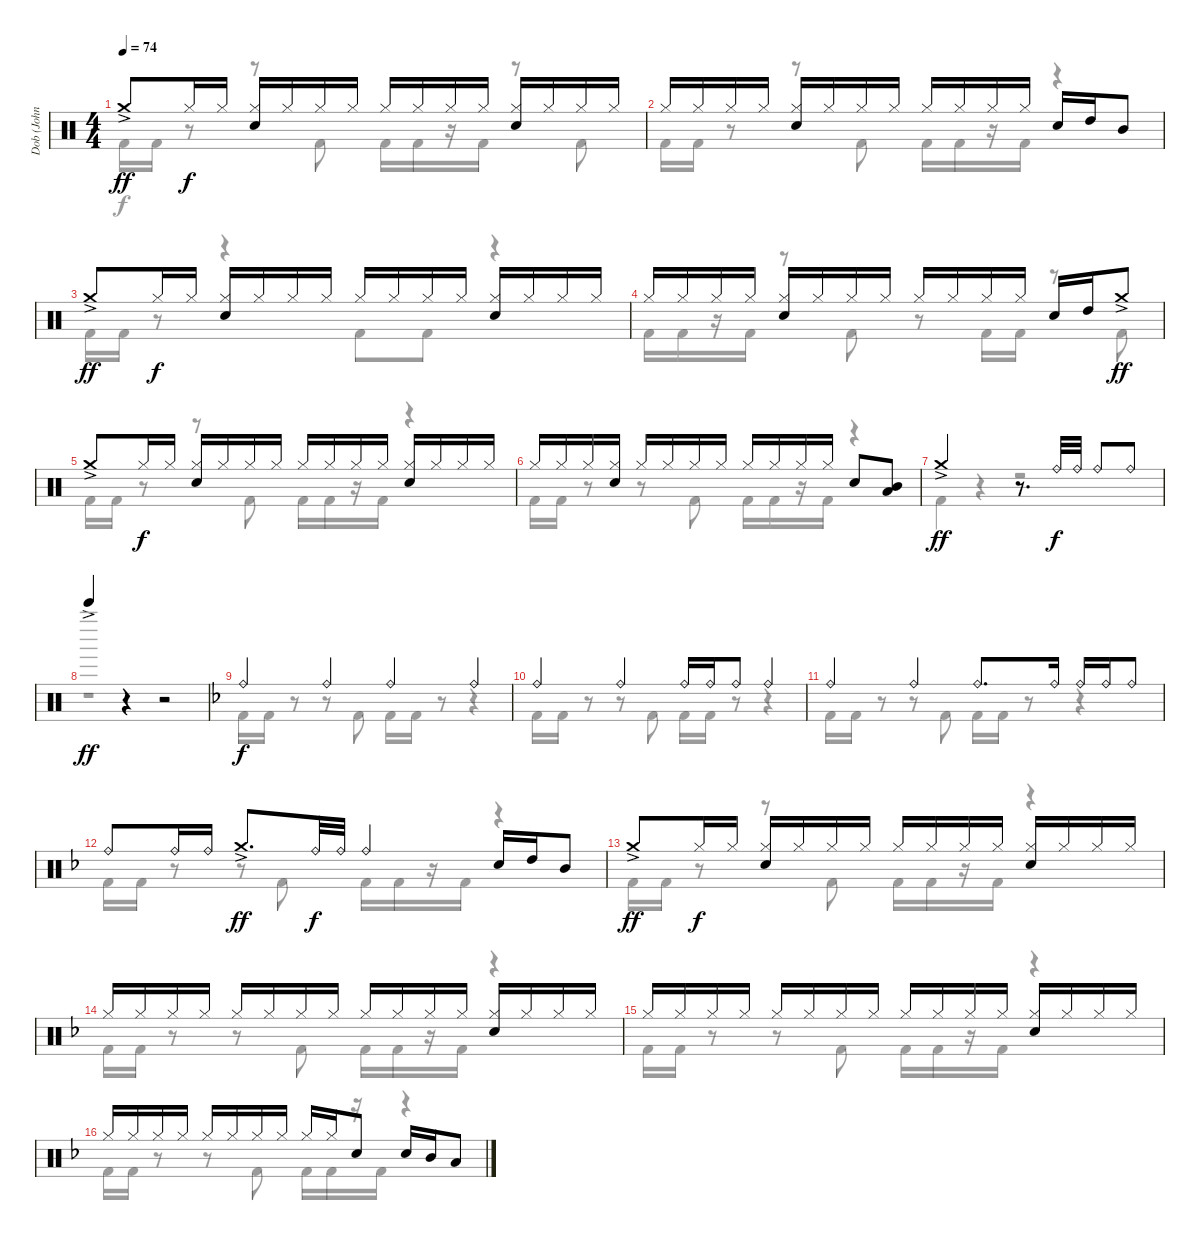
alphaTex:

\track ("Dob (John O'Reilly)" "Dob (John ") {instrument percussion}
\staff {score}
\articulation defaults
\voice
\ts (4 4)
\tempo 74
\clef neutral
\ks c "Crash medium (hit)"{ac}.8{dy ff} "Hi-Hat (closed)".16{dy f} "Hi-Hat (closed)".16
("Hi-Hat (closed)" "Electric Snare (hit)").16 "Hi-Hat (closed)".16 "Hi-Hat (closed)".16 "Hi-Hat (closed)".16 "Hi-Hat (closed)".16 "Hi-Hat (closed)".16 "Hi-Hat (closed)".16 "Hi-Hat (closed)".16 ("Hi-Hat (closed)" "Electric Snare (hit)").16 "Hi-Hat (closed)".16 "Hi-Hat (closed)".16 "Hi-Hat (closed)".16 |
"Hi-Hat (closed)".16 "Hi-Hat (closed)".16 "Hi-Hat (closed)".16 "Hi-Hat (closed)".16 ("Hi-Hat (closed)" "Electric Snare (hit)").16 "Hi-Hat (closed)".16 "Hi-Hat (closed)".16 "Hi-Hat (closed)".16 "Hi-Hat (closed)".16 "Hi-Hat (closed)".16 "Hi-Hat (closed)".16 "Hi-Hat (closed)".16 "Electric Snare (hit)".16 "High Tom (hit)".16 "Mid Tom (hit)".8 |
"Crash medium (hit)"{ac}.8{dy ff} "Hi-Hat (closed)".16{dy f} "Hi-Hat (closed)".16 ("Hi-Hat (closed)" "Electric Snare (hit)").16 "Hi-Hat (closed)".16 "Hi-Hat (closed)".16 "Hi-Hat (closed)".16 "Hi-Hat (closed)".16 "Hi-Hat (closed)".16 "Hi-Hat (closed)".16 "Hi-Hat (closed)".16 ("Hi-Hat (closed)" "Electric Snare (hit)").16 "Hi-Hat (closed)".16 "Hi-Hat (closed)".16 "Hi-Hat (closed)".16 |
"Hi-Hat (closed)".16 "Hi-Hat (closed)".16 "Hi-Hat (closed)".16 "Hi-Hat (closed)".16 ("Hi-Hat (closed)" "Electric Snare (hit)").16 "Hi-Hat (closed)".16 "Hi-Hat (closed)".16 "Hi-Hat (closed)".16 "Hi-Hat (closed)".16 "Hi-Hat (closed)".16 "Hi-Hat (closed)".16 "Hi-Hat (closed)".16 "Electric Snare (hit)".16 "High Tom (hit)".16 "Crash medium (hit)"{ac}.8{dy ff} |
"Crash medium (hit)"{ac}.8 "Hi-Hat (closed)".16{dy f} "Hi-Hat (closed)".16 ("Hi-Hat (closed)" "Electric Snare (hit)").16 "Hi-Hat (closed)".16 "Hi-Hat (closed)".16 "Hi-Hat (closed)".16 "Hi-Hat (closed)".16 "Hi-Hat (closed)".16 "Hi-Hat (closed)".16 "Hi-Hat (closed)".16 ("Hi-Hat (closed)" "Electric Snare (hit)").16 "Hi-Hat (closed)".16 "Hi-Hat (closed)".16 "Hi-Hat (closed)".16 |
"Hi-Hat (closed)".16 "Hi-Hat (closed)".16 "Hi-Hat (closed)".16 ("Hi-Hat (closed)" "Electric Snare (hit)").16 "Hi-Hat (closed)".16 "Hi-Hat (closed)".16 "Hi-Hat (closed)".16 "Hi-Hat (closed)".16 "Hi-Hat (closed)".16 "Hi-Hat (closed)".16 "Hi-Hat (closed)".16 "Hi-Hat (closed)".16 "Electric Snare (hit)".8 ("Mid Tom (hit)" "Low Tom (hit)").8 |
"Crash medium (hit)"{ac}.2{dy ff} r.8{d} "Ride (bell)".32{dy f} "Ride (bell)".32 "Ride (bell)".8 "Ride (bell)".8 |
"Bell Tree (hit)"{ac}.4{dy ff} r.4 r.2 |
\ks f "Ride (bell)".4{dy f} "Ride (bell)".4 "Ride (bell)".4 "Ride (bell)".4
|
"Ride (bell)".4 "Ride (bell)".4 "Ride (bell)".16 "Ride (bell)".16 "Ride (bell)".8 "Ride (bell)".4 |
"Ride (bell)".4 "Ride (bell)".4 "Ride (bell)".8{d} "Ride (bell)".16 "Ride (bell)".16 "Ride (bell)".16 "Ride (bell)".8 |
"Ride (bell)".8 "Ride (bell)".16 "Ride (bell)".16 "Crash medium (hit)"{ac}.8{d dy ff} "Ride (bell)".32{dy f} "Ride (bell)".32 "Ride (bell)".4 "Electric Snare (hit)".16 "High Tom (hit)".16 "Mid Tom (hit)".8 |
"Crash medium (hit)"{ac}.8{dy ff} "Hi-Hat (closed)".16{dy f} "Hi-Hat (closed)".16 ("Hi-Hat (closed)" "Electric Snare (hit)").16 "Hi-Hat (closed)".16 "Hi-Hat (closed)".16 "Hi-Hat (closed)".16 "Hi-Hat (closed)".16 "Hi-Hat (closed)".16 "Hi-Hat (closed)".16 "Hi-Hat (closed)".16 ("Hi-Hat (closed)" "Electric Snare (hit)").16 "Hi-Hat (closed)".16 "Hi-Hat (closed)".16 "Hi-Hat (closed)".16 |
"Hi-Hat (closed)".16 "Hi-Hat (closed)".16 "Hi-Hat (closed)".16 "Hi-Hat (closed)".16 "Hi-Hat (closed)".16 "Hi-Hat (closed)".16 "Hi-Hat (closed)".16 "Hi-Hat (closed)".16 "Hi-Hat (closed)".16 "Hi-Hat (closed)".16 "Hi-Hat (closed)".16 "Hi-Hat (closed)".16 ("Hi-Hat (closed)" "Electric Snare (hit)").16 "Hi-Hat (closed)".16 "Hi-Hat (closed)".16 "Hi-Hat (closed)".16 |
"Hi-Hat (closed)".16 "Hi-Hat (closed)".16 "Hi-Hat (closed)".16 "Hi-Hat (closed)".16 "Hi-Hat (closed)".16 "Hi-Hat (closed)".16 "Hi-Hat (closed)".16 "Hi-Hat (closed)".16 "Hi-Hat (closed)".16 "Hi-Hat (closed)".16 "Hi-Hat (closed)".16 "Hi-Hat (closed)".16 ("Hi-Hat (closed)" "Electric Snare (hit)").16 "Hi-Hat (closed)".16 "Hi-Hat (closed)".16 "Hi-Hat (closed)".16 |
"Hi-Hat (closed)".16 "Hi-Hat (closed)".16 "Hi-Hat (closed)".16 "Hi-Hat (closed)".16 "Hi-Hat (closed)".16 "Hi-Hat (closed)".16 "Hi-Hat (closed)".16 "Hi-Hat (closed)".16 "Hi-Hat (closed)".16 "Hi-Hat (closed)".16 "Electric Snare (hit)".8 "Electric Snare (hit)".16 "Mid Tom (hit)".16 "Low Tom (hit)".8
\voice
\clef neutral
\ottava regular
\simile none
\ks c "Kick (hit) 2".16{dy f} "Kick (hit) 2".16
r.8 r.8 "Kick (hit) 2".8 "Kick (hit) 2".16 "Kick (hit) 2".16 r.16 "Kick (hit) 2".16 r.8 "Kick (hit) 2".8 |
"Kick (hit) 2".16 "Kick (hit) 2".16 r.8 r.8 "Kick (hit) 2".8 "Kick (hit) 2".16 "Kick (hit) 2".16 r.16 "Kick (hit) 2".16 r.4 |
"Kick (hit) 2".16 "Kick (hit) 2".16 r.8 r.4 "Kick (hit) 2".8 "Kick (hit) 2".8 r.4 |
"Kick (hit) 2".16 "Kick (hit) 2".16 r.16 "Kick (hit) 2".16 r.8 "Kick (hit) 2".8 r.8 "Kick (hit) 2".16 "Kick (hit) 2".16 r.8 "Kick (hit) 2".8 |
"Kick (hit) 2".16 "Kick (hit) 2".16 r.8 r.8 "Kick (hit) 2".8 "Kick (hit) 2".16 "Kick (hit) 2".16 r.16 "Kick (hit) 2".16 r.4 |
"Kick (hit) 2".16 "Kick (hit) 2".16 r.8 r.8 "Kick (hit) 2".8 "Kick (hit) 2".16 "Kick (hit) 2".16 r.16 "Kick (hit) 2".16 r.4 |
"Kick (hit) 2".4 r.4 r.2 |
r.1 |
\ks f "Kick (hit) 2".16 "Kick (hit) 2".16
r.8 r.8 "Kick (hit) 2".8 "Kick (hit) 2".16 "Kick (hit) 2".16 r.8 r.4 |
"Kick (hit) 2".16 "Kick (hit) 2".16 r.8 r.8 "Kick (hit) 2".8 "Kick (hit) 2".16 "Kick (hit) 2".16 r.8 r.4 |
"Kick (hit) 2".16 "Kick (hit) 2".16 r.8 r.8 "Kick (hit) 2".8 "Kick (hit) 2".16 "Kick (hit) 2".16 r.8 r.4 |
"Kick (hit) 2".16 "Kick (hit) 2".16 r.8 r.8 "Kick (hit) 2".8 "Kick (hit) 2".16 "Kick (hit) 2".16 r.16 "Kick (hit) 2".16 r.4 |
"Kick (hit) 2".16 "Kick (hit) 2".16 r.8 r.8 "Kick (hit) 2".8 "Kick (hit) 2".16 "Kick (hit) 2".16 r.16 "Kick (hit) 2".16 r.4 |
"Kick (hit) 2".16 "Kick (hit) 2".16 r.8 r.8 "Kick (hit) 2".8 "Kick (hit) 2".16 "Kick (hit) 2".16 r.16 "Kick (hit) 2".16 r.4 |
"Kick (hit) 2".16 "Kick (hit) 2".16 r.8 r.8 "Kick (hit) 2".8 "Kick (hit) 2".16 "Kick (hit) 2".16 r.16 "Kick (hit) 2".16 r.4 |
"Kick (hit) 2".16 "Kick (hit) 2".16 r.8 r.8 "Kick (hit) 2".8 "Kick (hit) 2".16 "Kick (hit) 2".16 r.16 "Kick (hit) 2".16 r.4
